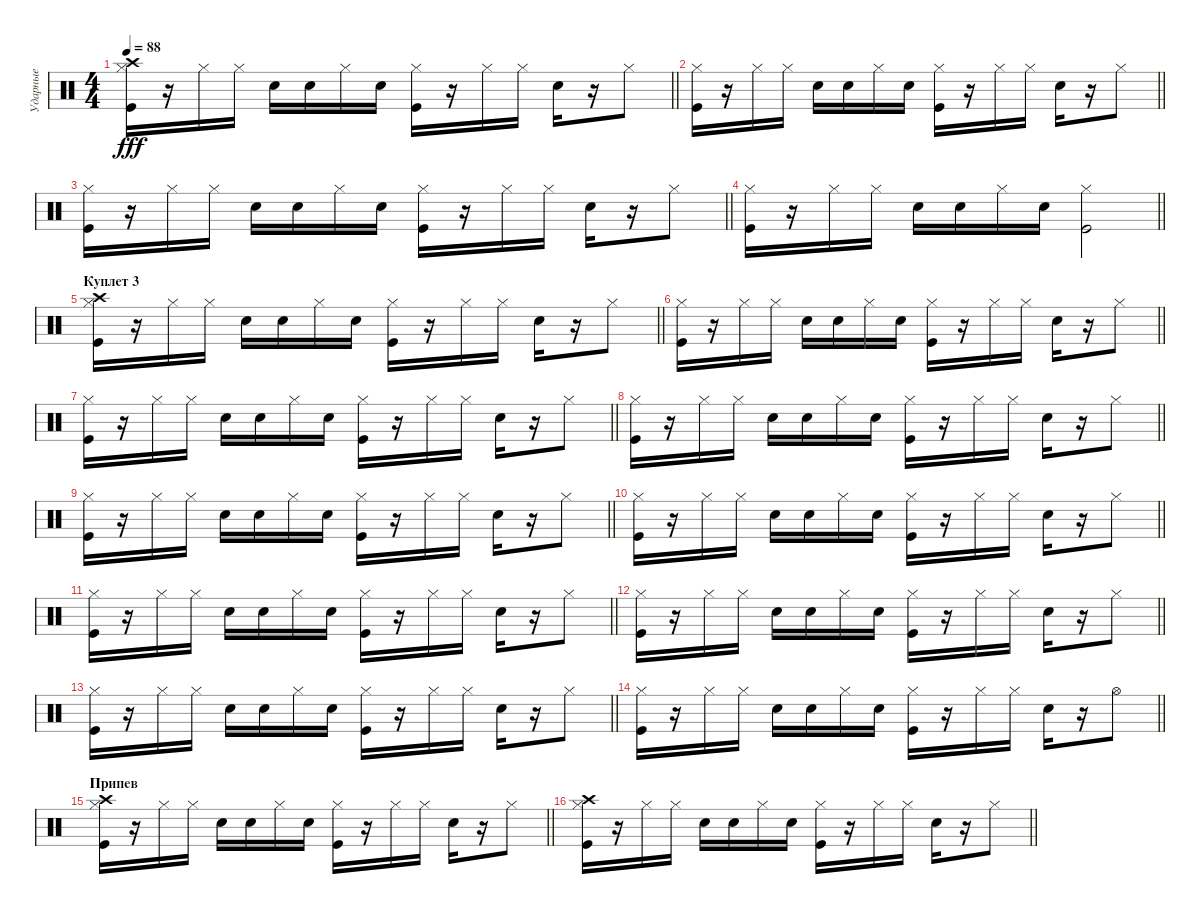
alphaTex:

\track ("Ударные" "Ударные") {solo instrument percussion}
\staff {score}
\articulation defaults
\ts (4 4)
\tempo 88
\clef neutral
\barLineRight lightlight
\ks aminor
("Hi-Hat (closed)" "Kick (hit)" "Crash high (hit)").16{dy fff} r.16 "Hi-Hat (closed)".16 "Hi-Hat (closed)".16 "Snare (hit) 2".16 "Snare (hit) 2".16 "Hi-Hat (closed)".16 "Snare (hit) 2".16 ("Hi-Hat (closed)" "Kick (hit)").16 r.16 "Hi-Hat (closed)".16 "Hi-Hat (closed)".16 "Snare (hit) 2".16 r.16 "Hi-Hat (closed)".8 |
\barLineRight lightlight
("Hi-Hat (closed)" "Kick (hit)").16 r.16 "Hi-Hat (closed)".16 "Hi-Hat (closed)".16 "Snare (hit) 2".16 "Snare (hit) 2".16 "Hi-Hat (closed)".16 "Snare (hit) 2".16 ("Hi-Hat (closed)" "Kick (hit)").16 r.16 "Hi-Hat (closed)".16 "Hi-Hat (closed)".16 "Snare (hit) 2".16 r.16 "Hi-Hat (closed)".8 |
\barLineRight lightlight
("Hi-Hat (closed)" "Kick (hit)").16 r.16 "Hi-Hat (closed)".16 "Hi-Hat (closed)".16 "Snare (hit) 2".16 "Snare (hit) 2".16 "Hi-Hat (closed)".16 "Snare (hit) 2".16 ("Hi-Hat (closed)" "Kick (hit)").16 r.16 "Hi-Hat (closed)".16 "Hi-Hat (closed)".16 "Snare (hit) 2".16 r.16 "Hi-Hat (closed)".8 |
\barLineRight lightlight
("Hi-Hat (closed)" "Kick (hit)").16 r.16 "Hi-Hat (closed)".16 "Hi-Hat (closed)".16 "Snare (hit) 2".16 "Snare (hit) 2".16 "Hi-Hat (closed)".16 "Snare (hit) 2".16 ("Hi-Hat (closed)" "Kick (hit)").2 |
\section ("" "Куплет 3")
\barLineRight lightlight
("Hi-Hat (closed)" "Kick (hit)" "Crash high (hit)").16 r.16 "Hi-Hat (closed)".16 "Hi-Hat (closed)".16 "Snare (hit) 2".16 "Snare (hit) 2".16 "Hi-Hat (closed)".16 "Snare (hit) 2".16 ("Hi-Hat (closed)" "Kick (hit)").16 r.16 "Hi-Hat (closed)".16 "Hi-Hat (closed)".16 "Snare (hit) 2".16 r.16 "Hi-Hat (closed)".8 |
\barLineRight lightlight
("Hi-Hat (closed)" "Kick (hit)").16 r.16 "Hi-Hat (closed)".16 "Hi-Hat (closed)".16 "Snare (hit) 2".16 "Snare (hit) 2".16 "Hi-Hat (closed)".16 "Snare (hit) 2".16 ("Hi-Hat (closed)" "Kick (hit)").16 r.16 "Hi-Hat (closed)".16 "Hi-Hat (closed)".16 "Snare (hit) 2".16 r.16 "Hi-Hat (closed)".8 |
\barLineRight lightlight
("Hi-Hat (closed)" "Kick (hit)").16 r.16 "Hi-Hat (closed)".16 "Hi-Hat (closed)".16 "Snare (hit) 2".16 "Snare (hit) 2".16 "Hi-Hat (closed)".16 "Snare (hit) 2".16 ("Hi-Hat (closed)" "Kick (hit)").16 r.16 "Hi-Hat (closed)".16 "Hi-Hat (closed)".16 "Snare (hit) 2".16 r.16 "Hi-Hat (closed)".8 |
\barLineRight lightlight
("Hi-Hat (closed)" "Kick (hit)").16 r.16 "Hi-Hat (closed)".16 "Hi-Hat (closed)".16 "Snare (hit) 2".16 "Snare (hit) 2".16 "Hi-Hat (closed)".16 "Snare (hit) 2".16 ("Hi-Hat (closed)" "Kick (hit)").16 r.16 "Hi-Hat (closed)".16 "Hi-Hat (closed)".16 "Snare (hit) 2".16 r.16 "Hi-Hat (closed)".8 |
\barLineRight lightlight
("Hi-Hat (closed)" "Kick (hit)").16 r.16 "Hi-Hat (closed)".16 "Hi-Hat (closed)".16 "Snare (hit) 2".16 "Snare (hit) 2".16 "Hi-Hat (closed)".16 "Snare (hit) 2".16 ("Hi-Hat (closed)" "Kick (hit)").16 r.16 "Hi-Hat (closed)".16 "Hi-Hat (closed)".16 "Snare (hit) 2".16 r.16 "Hi-Hat (closed)".8 |
\barLineRight lightlight
("Hi-Hat (closed)" "Kick (hit)").16 r.16 "Hi-Hat (closed)".16 "Hi-Hat (closed)".16 "Snare (hit) 2".16 "Snare (hit) 2".16 "Hi-Hat (closed)".16 "Snare (hit) 2".16 ("Hi-Hat (closed)" "Kick (hit)").16 r.16 "Hi-Hat (closed)".16 "Hi-Hat (closed)".16 "Snare (hit) 2".16 r.16 "Hi-Hat (closed)".8 |
\barLineRight lightlight
("Hi-Hat (closed)" "Kick (hit)").16 r.16 "Hi-Hat (closed)".16 "Hi-Hat (closed)".16 "Snare (hit) 2".16 "Snare (hit) 2".16 "Hi-Hat (closed)".16 "Snare (hit) 2".16 ("Hi-Hat (closed)" "Kick (hit)").16 r.16 "Hi-Hat (closed)".16 "Hi-Hat (closed)".16 "Snare (hit) 2".16 r.16 "Hi-Hat (closed)".8 |
\barLineRight lightlight
("Hi-Hat (closed)" "Kick (hit)").16 r.16 "Hi-Hat (closed)".16 "Hi-Hat (closed)".16 "Snare (hit) 2".16 "Snare (hit) 2".16 "Hi-Hat (closed)".16 "Snare (hit) 2".16 ("Hi-Hat (closed)" "Kick (hit)").16 r.16 "Hi-Hat (closed)".16 "Hi-Hat (closed)".16 "Snare (hit) 2".16 r.16 "Hi-Hat (closed)".8 |
\barLineRight lightlight
("Hi-Hat (closed)" "Kick (hit)").16 r.16 "Hi-Hat (closed)".16 "Hi-Hat (closed)".16 "Snare (hit) 2".16 "Snare (hit) 2".16 "Hi-Hat (closed)".16 "Snare (hit) 2".16 ("Hi-Hat (closed)" "Kick (hit)").16 r.16 "Hi-Hat (closed)".16 "Hi-Hat (closed)".16 "Snare (hit) 2".16 r.16 "Hi-Hat (closed)".8 |
\barLineRight lightlight
("Hi-Hat (closed)" "Kick (hit)").16 r.16 "Hi-Hat (closed)".16 "Hi-Hat (closed)".16 "Snare (hit) 2".16 "Snare (hit) 2".16 "Hi-Hat (closed)".16 "Snare (hit) 2".16 ("Hi-Hat (closed)" "Kick (hit)").16 r.16 "Hi-Hat (closed)".16 "Hi-Hat (closed)".16 "Snare (hit) 2".16 r.16 "Hi-Hat (open)".8 |
\section ("" "Припев")
\barLineRight lightlight
("Hi-Hat (closed)" "Kick (hit)" "Crash high (hit)").16 r.16 "Hi-Hat (closed)".16 "Hi-Hat (closed)".16 "Snare (hit) 2".16 "Snare (hit) 2".16 "Hi-Hat (closed)".16 "Snare (hit) 2".16 ("Hi-Hat (closed)" "Kick (hit)").16 r.16 "Hi-Hat (closed)".16 "Hi-Hat (closed)".16 "Snare (hit) 2".16 r.16 "Hi-Hat (closed)".8 |
\barLineRight lightlight
("Hi-Hat (closed)" "Kick (hit)" "Crash high (hit)").16 r.16 "Hi-Hat (closed)".16 "Hi-Hat (closed)".16 "Snare (hit) 2".16 "Snare (hit) 2".16 "Hi-Hat (closed)".16 "Snare (hit) 2".16 ("Hi-Hat (closed)" "Kick (hit)").16 r.16 "Hi-Hat (closed)".16 "Hi-Hat (closed)".16 "Snare (hit) 2".16 r.16 "Hi-Hat (closed)".8
